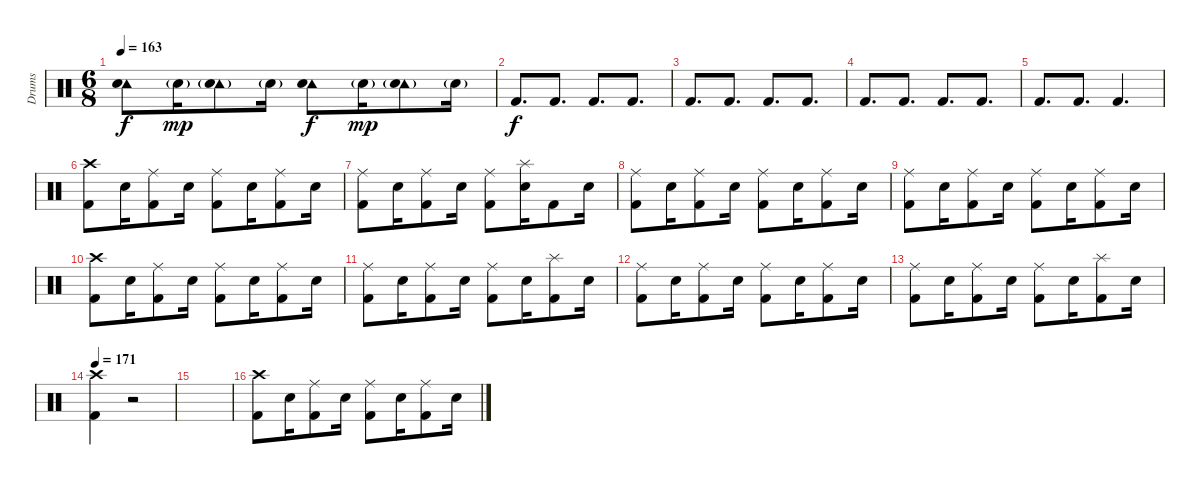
\track ("Drums" "Drums") {instrument percussion}
\staff {score}
\articulation defaults
\ts (6 8)
\tempo 163
\clef neutral
\ks c
("Tambourine (hit)" "Hand Clap (hit)").8{dy f} "Hand Clap (hit)"{g}.16{dy mp} ("Tambourine (hit)" "Hand Clap (hit)"{g}).8 "Hand Clap (hit)"{g}.16 ("Tambourine (hit)" "Hand Clap (hit)").8{dy f} "Hand Clap (hit)"{g}.16{dy mp} ("Tambourine (hit)" "Hand Clap (hit)"{g}).8 "Hand Clap (hit)"{g}.16 |
"Kick (hit) 2".8{d dy f} "Kick (hit) 2".8{d} "Kick (hit) 2".8{d} "Kick (hit) 2".8{d} |
"Kick (hit) 2".8{d} "Kick (hit) 2".8{d} "Kick (hit) 2".8{d} "Kick (hit) 2".8{d} |
"Kick (hit) 2".8{d} "Kick (hit) 2".8{d} "Kick (hit) 2".8{d} "Kick (hit) 2".8{d} |
"Kick (hit) 2".8{d} "Kick (hit) 2".8{d} "Kick (hit) 2".4{d} |
("Crash high (hit)" "Kick (hit) 2").8 "Snare (hit) 2".16 ("Ride (middle)" "Kick (hit) 2").8 "Snare (hit) 2".16 ("Ride (middle)" "Kick (hit) 2").8 "Snare (hit) 2".16 ("Ride (middle)" "Kick (hit) 2").8 "Snare (hit) 2".16 |
("Ride (middle)" "Kick (hit) 2").8 "Snare (hit) 2".16 ("Ride (middle)" "Kick (hit) 2").8 "Snare (hit) 2".16 ("Ride (middle)" "Kick (hit) 2").8 ("Splash (hit)" "Snare (hit) 2").16 "Kick (hit) 2".8 "Snare (hit) 2".16 |
("Ride (middle)" "Kick (hit) 2").8 "Snare (hit) 2".16 ("Ride (middle)" "Kick (hit) 2").8 "Snare (hit) 2".16 ("Ride (middle)" "Kick (hit) 2").8 "Snare (hit) 2".16 ("Ride (middle)" "Kick (hit) 2").8 "Snare (hit) 2".16 |
("Ride (middle)" "Kick (hit) 2").8 "Snare (hit) 2".16 ("Ride (middle)" "Kick (hit) 2").8 "Snare (hit) 2".16 ("Ride (middle)" "Kick (hit) 2").8 "Snare (hit) 2".16 ("Ride (middle)" "Kick (hit) 2").8 "Snare (hit) 2".16 |
("Crash high (hit)" "Kick (hit) 2").8 "Snare (hit) 2".16 ("Ride (middle)" "Kick (hit) 2").8 "Snare (hit) 2".16 ("Ride (middle)" "Kick (hit) 2").8 "Snare (hit) 2".16 ("Ride (middle)" "Kick (hit) 2").8 "Snare (hit) 2".16 |
("Ride (middle)" "Kick (hit) 2").8 "Snare (hit) 2".16 ("Ride (middle)" "Kick (hit) 2").8 "Snare (hit) 2".16 ("Ride (middle)" "Kick (hit) 2").8 "Snare (hit) 2".16 ("Splash (hit)" "Kick (hit) 2").8 "Snare (hit) 2".16 |
("Ride (middle)" "Kick (hit) 2").8 "Snare (hit) 2".16 ("Ride (middle)" "Kick (hit) 2").8 "Snare (hit) 2".16 ("Ride (middle)" "Kick (hit) 2").8 "Snare (hit) 2".16 ("Ride (middle)" "Kick (hit) 2").8 "Snare (hit) 2".16 |
("Ride (middle)" "Kick (hit) 2").8 "Snare (hit) 2".16 ("Ride (middle)" "Kick (hit) 2").8 "Snare (hit) 2".16 ("Ride (middle)" "Kick (hit) 2").8 "Snare (hit) 2".16 ("Splash (hit)" "Kick (hit) 2").8 "Snare (hit) 2".16 |
\tempo 171
("Crash high (hit)" "Kick (hit) 2").4 r.2 |
|
("Crash high (hit)" "Kick (hit) 2").8 "Snare (hit) 2".16 ("Ride (middle)" "Kick (hit) 2").8 "Snare (hit) 2".16 ("Ride (middle)" "Kick (hit) 2").8 "Snare (hit) 2".16 ("Ride (middle)" "Kick (hit) 2").8 "Snare (hit) 2".16
